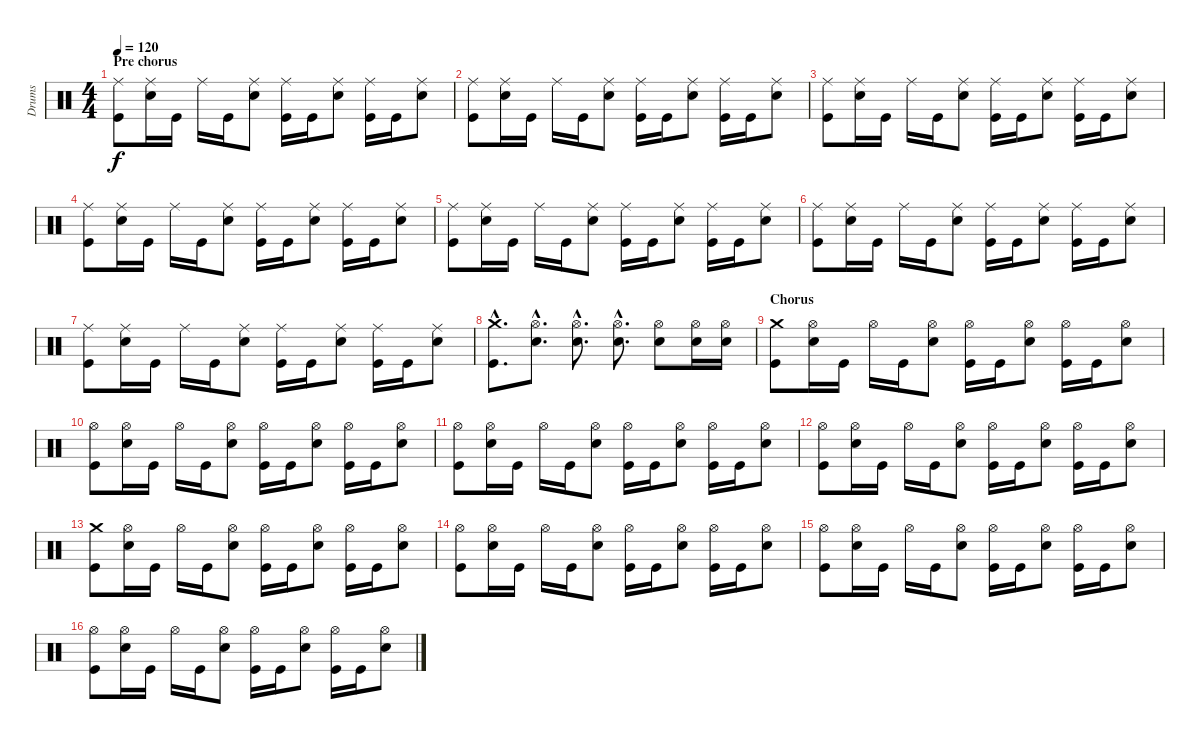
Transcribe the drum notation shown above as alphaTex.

\track ("Drums" "Drums") {instrument percussion}
\staff {score}
\articulation defaults
\ts (4 4)
\section ("" "Pre chorus")
\tempo 120
\clef neutral
\ks c
("Ride (middle)" "Kick (hit)").8{dy f} ("Ride (middle)" "Snare (hit) 2").16 "Kick (hit)".16 "Ride (middle)".16 "Kick (hit)".16 ("Ride (middle)" "Snare (hit) 2").8 ("Ride (middle)" "Kick (hit)").16 "Kick (hit)".16 ("Ride (middle)" "Snare (hit) 2").8 ("Ride (middle)" "Kick (hit)").16 "Kick (hit)".16 ("Ride (middle)" "Snare (hit) 2").8 |
("Ride (middle)" "Kick (hit)").8 ("Ride (middle)" "Snare (hit) 2").16 "Kick (hit)".16 "Ride (middle)".16 "Kick (hit)".16 ("Ride (middle)" "Snare (hit) 2").8 ("Ride (middle)" "Kick (hit)").16 "Kick (hit)".16 ("Ride (middle)" "Snare (hit) 2").8 ("Ride (middle)" "Kick (hit)").16 "Kick (hit)".16 ("Ride (middle)" "Snare (hit) 2").8 |
("Ride (middle)" "Kick (hit)").8 ("Ride (middle)" "Snare (hit) 2").16 "Kick (hit)".16 "Ride (middle)".16 "Kick (hit)".16 ("Ride (middle)" "Snare (hit) 2").8 ("Ride (middle)" "Kick (hit)").16 "Kick (hit)".16 ("Ride (middle)" "Snare (hit) 2").8 ("Ride (middle)" "Kick (hit)").16 "Kick (hit)".16 ("Ride (middle)" "Snare (hit) 2").8 |
("Ride (middle)" "Kick (hit)").8 ("Ride (middle)" "Snare (hit) 2").16 "Kick (hit)".16 "Ride (middle)".16 "Kick (hit)".16 ("Ride (middle)" "Snare (hit) 2").8 ("Ride (middle)" "Kick (hit)").16 "Kick (hit)".16 ("Ride (middle)" "Snare (hit) 2").8 ("Ride (middle)" "Kick (hit)").16 "Kick (hit)".16 ("Ride (middle)" "Snare (hit) 2").8 |
("Ride (middle)" "Kick (hit)").8 ("Ride (middle)" "Snare (hit) 2").16 "Kick (hit)".16 "Ride (middle)".16 "Kick (hit)".16 ("Ride (middle)" "Snare (hit) 2").8 ("Ride (middle)" "Kick (hit)").16 "Kick (hit)".16 ("Ride (middle)" "Snare (hit) 2").8 ("Ride (middle)" "Kick (hit)").16 "Kick (hit)".16 ("Ride (middle)" "Snare (hit) 2").8 |
("Ride (middle)" "Kick (hit)").8 ("Ride (middle)" "Snare (hit) 2").16 "Kick (hit)".16 "Ride (middle)".16 "Kick (hit)".16 ("Ride (middle)" "Snare (hit) 2").8 ("Ride (middle)" "Kick (hit)").16 "Kick (hit)".16 ("Ride (middle)" "Snare (hit) 2").8 ("Ride (middle)" "Kick (hit)").16 "Kick (hit)".16 ("Ride (middle)" "Snare (hit) 2").8 |
("Ride (middle)" "Kick (hit)").8 ("Ride (middle)" "Snare (hit) 2").16 "Kick (hit)".16 "Ride (middle)".16 "Kick (hit)".16 ("Ride (middle)" "Snare (hit) 2").8 ("Ride (middle)" "Kick (hit)").16 "Kick (hit)".16 ("Ride (middle)" "Snare (hit) 2").8 ("Ride (middle)" "Kick (hit)").16 "Kick (hit)".16 ("Ride (middle)" "Snare (hit) 2").8 |
("Crash medium (hit)"{hac} "Kick (hit)"{hac}).8{d} ("Hi-Hat (open)"{hac} "Snare (hit) 2"{hac}).8{d} ("Hi-Hat (open)"{hac} "Snare (hit) 2"{hac}).8{d} ("Hi-Hat (open)"{hac} "Snare (hit) 2"{hac}).8{d} ("Hi-Hat (open)" "Snare (hit) 2").8 ("Hi-Hat (open)" "Snare (hit) 2").16 ("Hi-Hat (open)" "Snare (hit) 2").16 |
\section ("" "Chorus")
("Crash medium (hit)" "Kick (hit)").8 ("Hi-Hat (open)" "Snare (hit) 2").16 "Kick (hit)".16 "Hi-Hat (open)".16 "Kick (hit)".16 ("Hi-Hat (open)" "Snare (hit) 2").8 ("Hi-Hat (open)" "Kick (hit)").16 "Kick (hit)".16 ("Hi-Hat (open)" "Snare (hit) 2").8 ("Hi-Hat (open)" "Kick (hit)").16 "Kick (hit)".16 ("Hi-Hat (open)" "Snare (hit) 2").8 |
("Hi-Hat (open)" "Kick (hit)").8 ("Hi-Hat (open)" "Snare (hit) 2").16 "Kick (hit)".16 "Hi-Hat (open)".16 "Kick (hit)".16 ("Hi-Hat (open)" "Snare (hit) 2").8 ("Hi-Hat (open)" "Kick (hit)").16 "Kick (hit)".16 ("Hi-Hat (open)" "Snare (hit) 2").8 ("Hi-Hat (open)" "Kick (hit)").16 "Kick (hit)".16 ("Hi-Hat (open)" "Snare (hit) 2").8 |
("Hi-Hat (open)" "Kick (hit)").8 ("Hi-Hat (open)" "Snare (hit) 2").16 "Kick (hit)".16 "Hi-Hat (open)".16 "Kick (hit)".16 ("Hi-Hat (open)" "Snare (hit) 2").8 ("Hi-Hat (open)" "Kick (hit)").16 "Kick (hit)".16 ("Hi-Hat (open)" "Snare (hit) 2").8 ("Hi-Hat (open)" "Kick (hit)").16 "Kick (hit)".16 ("Hi-Hat (open)" "Snare (hit) 2").8 |
("Hi-Hat (open)" "Kick (hit)").8 ("Hi-Hat (open)" "Snare (hit) 2").16 "Kick (hit)".16 "Hi-Hat (open)".16 "Kick (hit)".16 ("Hi-Hat (open)" "Snare (hit) 2").8 ("Hi-Hat (open)" "Kick (hit)").16 "Kick (hit)".16 ("Hi-Hat (open)" "Snare (hit) 2").8 ("Hi-Hat (open)" "Kick (hit)").16 "Kick (hit)".16 ("Hi-Hat (open)" "Snare (hit) 2").8 |
("Crash medium (hit)" "Kick (hit)").8 ("Hi-Hat (open)" "Snare (hit) 2").16 "Kick (hit)".16 "Hi-Hat (open)".16 "Kick (hit)".16 ("Hi-Hat (open)" "Snare (hit) 2").8 ("Hi-Hat (open)" "Kick (hit)").16 "Kick (hit)".16 ("Hi-Hat (open)" "Snare (hit) 2").8 ("Hi-Hat (open)" "Kick (hit)").16 "Kick (hit)".16 ("Hi-Hat (open)" "Snare (hit) 2").8 |
("Hi-Hat (open)" "Kick (hit)").8 ("Hi-Hat (open)" "Snare (hit) 2").16 "Kick (hit)".16 "Hi-Hat (open)".16 "Kick (hit)".16 ("Hi-Hat (open)" "Snare (hit) 2").8 ("Hi-Hat (open)" "Kick (hit)").16 "Kick (hit)".16 ("Hi-Hat (open)" "Snare (hit) 2").8 ("Hi-Hat (open)" "Kick (hit)").16 "Kick (hit)".16 ("Hi-Hat (open)" "Snare (hit) 2").8 |
("Hi-Hat (open)" "Kick (hit)").8 ("Hi-Hat (open)" "Snare (hit) 2").16 "Kick (hit)".16 "Hi-Hat (open)".16 "Kick (hit)".16 ("Hi-Hat (open)" "Snare (hit) 2").8 ("Hi-Hat (open)" "Kick (hit)").16 "Kick (hit)".16 ("Hi-Hat (open)" "Snare (hit) 2").8 ("Hi-Hat (open)" "Kick (hit)").16 "Kick (hit)".16 ("Hi-Hat (open)" "Snare (hit) 2").8 |
("Hi-Hat (open)" "Kick (hit)").8 ("Hi-Hat (open)" "Snare (hit) 2").16 "Kick (hit)".16 "Hi-Hat (open)".16 "Kick (hit)".16 ("Hi-Hat (open)" "Snare (hit) 2").8 ("Hi-Hat (open)" "Kick (hit)").16 "Kick (hit)".16 ("Hi-Hat (open)" "Snare (hit) 2").8 ("Hi-Hat (open)" "Kick (hit)").16 "Kick (hit)".16 ("Hi-Hat (open)" "Snare (hit) 2").8
